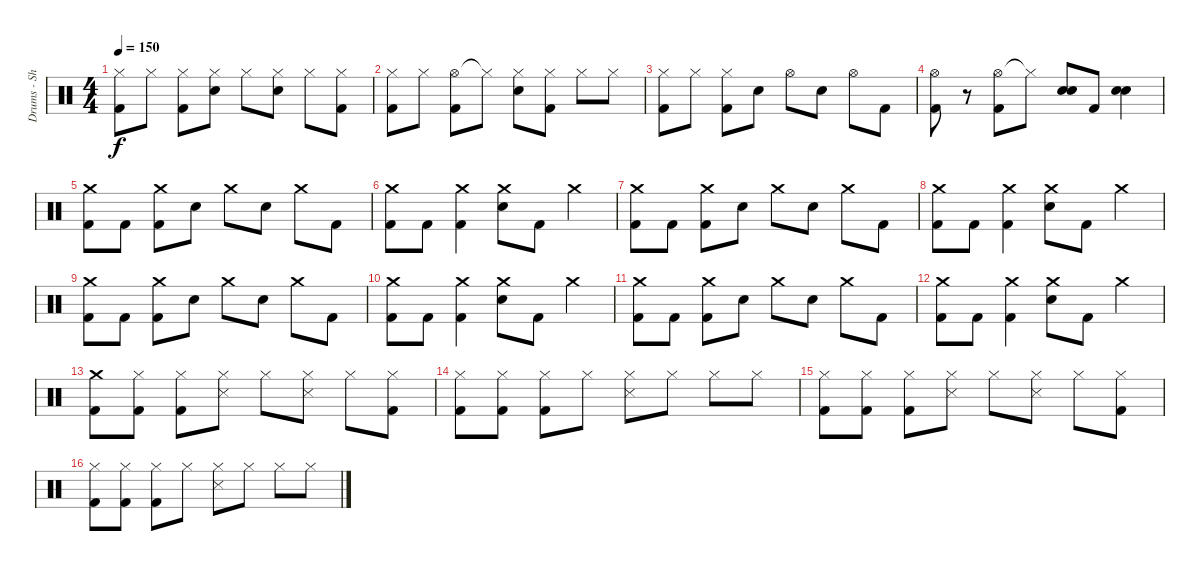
\track ("Drums - Shelton" "Drums - Sh") {instrument percussion}
\staff {score}
\articulation defaults
\ts (4 4)
\tempo 150
\clef neutral
\ks c
("Hi-Hat (closed)" "Kick (hit) 2").8{dy f} "Hi-Hat (closed)".8 ("Hi-Hat (closed)" "Kick (hit) 2").8 ("Hi-Hat (closed)" "Electric Snare (hit)").8 "Hi-Hat (closed)".8 ("Hi-Hat (closed)" "Electric Snare (hit)").8 "Hi-Hat (closed)".8 ("Hi-Hat (closed)" "Kick (hit) 2").8 |
("Hi-Hat (closed)" "Kick (hit) 2").8 "Hi-Hat (closed)".8 ("Hi-Hat (open)" "Kick (hit) 2").8 "Hi-Hat (closed)"{t}.8 ("Hi-Hat (closed)" "Electric Snare (hit)").8 ("Hi-Hat (closed)" "Kick (hit) 2").8 "Hi-Hat (closed)".8 "Hi-Hat (closed)".8 |
("Hi-Hat (closed)" "Kick (hit) 2").8 "Hi-Hat (closed)".8 ("Hi-Hat (closed)" "Kick (hit) 2").8 "Electric Snare (hit)".8 "Hi-Hat (open)".8 "Electric Snare (hit)".8 "Hi-Hat (open)".8 "Kick (hit) 2".8 |
("Hi-Hat (open)" "Kick (hit) 2").8 r.8 ("Hi-Hat (open)" "Kick (hit) 2").8 "Hi-Hat (closed)"{t}.8 ("Electric Snare (hit)" "Electric Snare (hit)").8 "Kick (hit) 2".8 ("Electric Snare (hit)" "Electric Snare (hit)").4 |
("Crash medium (hit)" "Kick (hit) 2").8 "Kick (hit) 2".8 ("Crash medium (hit)" "Kick (hit) 2").8 "Electric Snare (hit)".8 "Crash medium (hit)".8 "Electric Snare (hit)".8 "Crash medium (hit)".8 "Kick (hit) 2".8 |
("Crash medium (hit)" "Kick (hit) 2").8 "Kick (hit) 2".8 ("Crash medium (hit)" "Kick (hit) 2").4 ("Crash medium (hit)" "Electric Snare (hit)").8 "Kick (hit) 2".8 "Crash medium (hit)".4 |
("Crash medium (hit)" "Kick (hit) 2").8 "Kick (hit) 2".8 ("Crash medium (hit)" "Kick (hit) 2").8 "Electric Snare (hit)".8 "Crash medium (hit)".8 "Electric Snare (hit)".8 "Crash medium (hit)".8 "Kick (hit) 2".8 |
("Crash medium (hit)" "Kick (hit) 2").8 "Kick (hit) 2".8 ("Crash medium (hit)" "Kick (hit) 2").4 ("Crash medium (hit)" "Electric Snare (hit)").8 "Kick (hit) 2".8 "Crash medium (hit)".4 |
("Crash medium (hit)" "Kick (hit) 2").8 "Kick (hit) 2".8 ("Crash medium (hit)" "Kick (hit) 2").8 "Electric Snare (hit)".8 "Crash medium (hit)".8 "Electric Snare (hit)".8 "Crash medium (hit)".8 "Kick (hit) 2".8 |
("Crash medium (hit)" "Kick (hit) 2").8 "Kick (hit) 2".8 ("Crash medium (hit)" "Kick (hit) 2").4 ("Crash medium (hit)" "Electric Snare (hit)").8 "Kick (hit) 2".8 "Crash medium (hit)".4 |
("Crash medium (hit)" "Kick (hit) 2").8 "Kick (hit) 2".8 ("Crash medium (hit)" "Kick (hit) 2").8 "Electric Snare (hit)".8 "Crash medium (hit)".8 "Electric Snare (hit)".8 "Crash medium (hit)".8 "Kick (hit) 2".8 |
("Crash medium (hit)" "Kick (hit) 2").8 "Kick (hit) 2".8 ("Crash medium (hit)" "Kick (hit) 2").4 ("Crash medium (hit)" "Electric Snare (hit)").8 "Kick (hit) 2".8 "Crash medium (hit)".4 |
("Crash medium (hit)" "Kick (hit) 2").8 ("Hi-Hat (closed)" "Kick (hit) 2").8 ("Hi-Hat (closed)" "Kick (hit) 2").8 ("Hi-Hat (closed)" "Snare (side stick) 3").8 "Hi-Hat (closed)".8 ("Hi-Hat (closed)" "Snare (side stick) 3").8 "Hi-Hat (closed)".8 ("Hi-Hat (closed)" "Kick (hit) 2").8 |
("Hi-Hat (closed)" "Kick (hit) 2").8 ("Hi-Hat (closed)" "Kick (hit) 2").8 ("Hi-Hat (closed)" "Kick (hit) 2").8 "Hi-Hat (closed)".8 ("Hi-Hat (closed)" "Snare (side stick) 3").8 "Hi-Hat (closed)".8 "Hi-Hat (closed)".8 "Hi-Hat (closed)".8 |
("Hi-Hat (closed)" "Kick (hit) 2").8 ("Hi-Hat (closed)" "Kick (hit) 2").8 ("Hi-Hat (closed)" "Kick (hit) 2").8 ("Hi-Hat (closed)" "Snare (side stick) 3").8 "Hi-Hat (closed)".8 ("Hi-Hat (closed)" "Snare (side stick) 3").8 "Hi-Hat (closed)".8 ("Hi-Hat (closed)" "Kick (hit) 2").8 |
("Hi-Hat (closed)" "Kick (hit) 2").8 ("Hi-Hat (closed)" "Kick (hit) 2").8 ("Hi-Hat (closed)" "Kick (hit) 2").8 "Hi-Hat (closed)".8 ("Hi-Hat (closed)" "Snare (side stick) 3").8 "Hi-Hat (closed)".8 "Hi-Hat (closed)".8 "Hi-Hat (closed)".8
